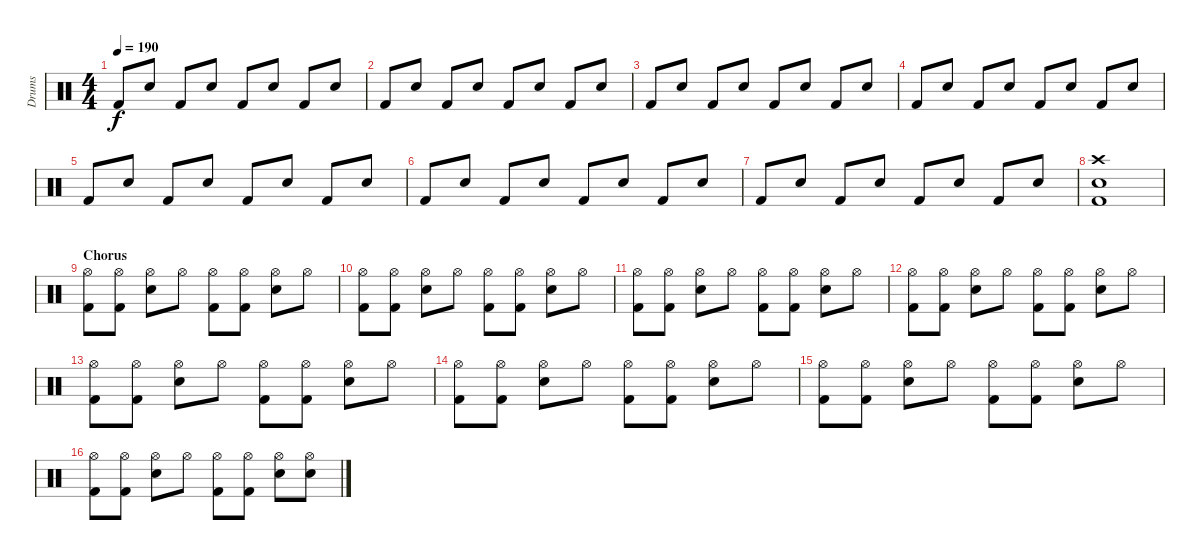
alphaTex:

\track ("Drums" "Drums") {instrument percussion}
\staff {score}
\articulation defaults
\ts (4 4)
\tempo 190
\clef neutral
\ks c "Kick (hit) 2".8{dy f} "Snare (hit) 2".8 "Kick (hit) 2".8 "Snare (hit) 2".8 "Kick (hit) 2".8 "Snare (hit) 2".8 "Kick (hit) 2".8 "Snare (hit) 2".8
|
"Kick (hit) 2".8 "Snare (hit) 2".8 "Kick (hit) 2".8 "Snare (hit) 2".8 "Kick (hit) 2".8 "Snare (hit) 2".8 "Kick (hit) 2".8 "Snare (hit) 2".8 |
"Kick (hit) 2".8 "Snare (hit) 2".8 "Kick (hit) 2".8 "Snare (hit) 2".8 "Kick (hit) 2".8 "Snare (hit) 2".8 "Kick (hit) 2".8 "Snare (hit) 2".8 |
"Kick (hit) 2".8 "Snare (hit) 2".8 "Kick (hit) 2".8 "Snare (hit) 2".8 "Kick (hit) 2".8 "Snare (hit) 2".8 "Kick (hit) 2".8 "Snare (hit) 2".8 |
"Kick (hit) 2".8 "Snare (hit) 2".8 "Kick (hit) 2".8 "Snare (hit) 2".8 "Kick (hit) 2".8 "Snare (hit) 2".8 "Kick (hit) 2".8 "Snare (hit) 2".8 |
"Kick (hit) 2".8 "Snare (hit) 2".8 "Kick (hit) 2".8 "Snare (hit) 2".8 "Kick (hit) 2".8 "Snare (hit) 2".8 "Kick (hit) 2".8 "Snare (hit) 2".8 |
"Kick (hit) 2".8 "Snare (hit) 2".8 "Kick (hit) 2".8 "Snare (hit) 2".8 "Kick (hit) 2".8 "Snare (hit) 2".8 "Kick (hit) 2".8 "Snare (hit) 2".8 |
("Crash high (hit)" "Snare (hit) 2" "Kick (hit) 2").1 |
\section ("" "Chorus")
("Hi-Hat (open)" "Kick (hit) 2").8 ("Hi-Hat (open)" "Kick (hit) 2").8 ("Hi-Hat (open)" "Snare (hit) 2").8 "Hi-Hat (open)".8 ("Hi-Hat (open)" "Kick (hit) 2").8 ("Hi-Hat (open)" "Kick (hit) 2").8 ("Hi-Hat (open)" "Snare (hit) 2").8 "Hi-Hat (open)".8 |
("Hi-Hat (open)" "Kick (hit) 2").8 ("Hi-Hat (open)" "Kick (hit) 2").8 ("Hi-Hat (open)" "Snare (hit) 2").8 "Hi-Hat (open)".8 ("Hi-Hat (open)" "Kick (hit) 2").8 ("Hi-Hat (open)" "Kick (hit) 2").8 ("Hi-Hat (open)" "Snare (hit) 2").8 "Hi-Hat (open)".8 |
("Hi-Hat (open)" "Kick (hit) 2").8 ("Hi-Hat (open)" "Kick (hit) 2").8 ("Hi-Hat (open)" "Snare (hit) 2").8 "Hi-Hat (open)".8 ("Hi-Hat (open)" "Kick (hit) 2").8 ("Hi-Hat (open)" "Kick (hit) 2").8 ("Hi-Hat (open)" "Snare (hit) 2").8 "Hi-Hat (open)".8 |
("Hi-Hat (open)" "Kick (hit) 2").8 ("Hi-Hat (open)" "Kick (hit) 2").8 ("Hi-Hat (open)" "Snare (hit) 2").8 "Hi-Hat (open)".8 ("Hi-Hat (open)" "Kick (hit) 2").8 ("Hi-Hat (open)" "Kick (hit) 2").8 ("Hi-Hat (open)" "Snare (hit) 2").8 "Hi-Hat (open)".8 |
("Hi-Hat (open)" "Kick (hit) 2").8 ("Hi-Hat (open)" "Kick (hit) 2").8 ("Hi-Hat (open)" "Snare (hit) 2").8 "Hi-Hat (open)".8 ("Hi-Hat (open)" "Kick (hit) 2").8 ("Hi-Hat (open)" "Kick (hit) 2").8 ("Hi-Hat (open)" "Snare (hit) 2").8 "Hi-Hat (open)".8 |
("Hi-Hat (open)" "Kick (hit) 2").8 ("Hi-Hat (open)" "Kick (hit) 2").8 ("Hi-Hat (open)" "Snare (hit) 2").8 "Hi-Hat (open)".8 ("Hi-Hat (open)" "Kick (hit) 2").8 ("Hi-Hat (open)" "Kick (hit) 2").8 ("Hi-Hat (open)" "Snare (hit) 2").8 "Hi-Hat (open)".8 |
("Hi-Hat (open)" "Kick (hit) 2").8 ("Hi-Hat (open)" "Kick (hit) 2").8 ("Hi-Hat (open)" "Snare (hit) 2").8 "Hi-Hat (open)".8 ("Hi-Hat (open)" "Kick (hit) 2").8 ("Hi-Hat (open)" "Kick (hit) 2").8 ("Hi-Hat (open)" "Snare (hit) 2").8 "Hi-Hat (open)".8 |
("Hi-Hat (open)" "Kick (hit) 2").8 ("Hi-Hat (open)" "Kick (hit) 2").8 ("Hi-Hat (open)" "Snare (hit) 2").8 "Hi-Hat (open)".8 ("Hi-Hat (open)" "Kick (hit) 2").8 ("Hi-Hat (open)" "Kick (hit) 2").8 ("Hi-Hat (open)" "Snare (hit) 2").8 ("Hi-Hat (open)" "Snare (hit) 2").8
